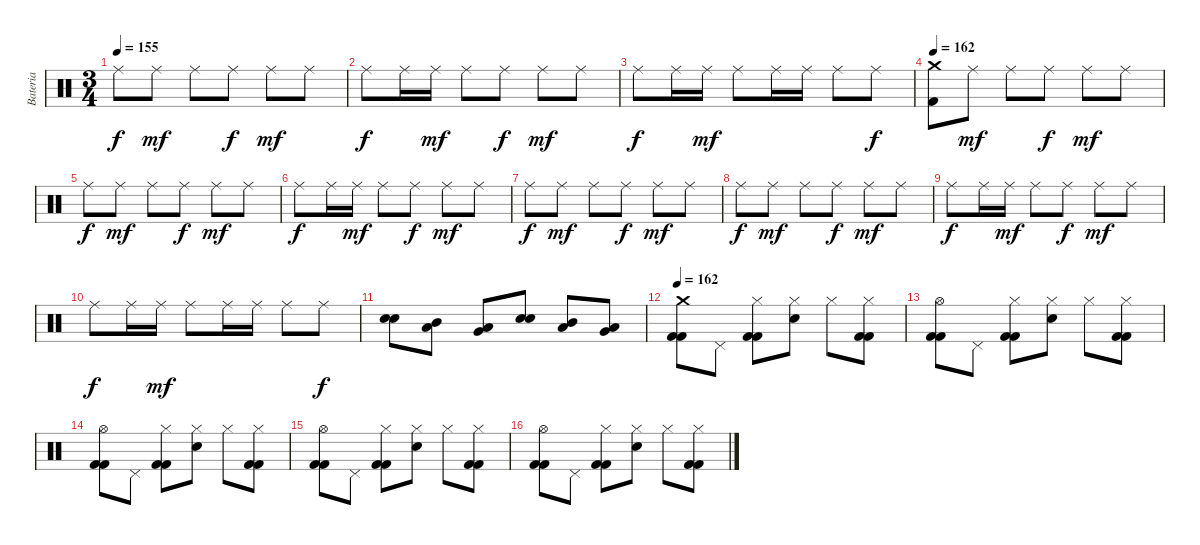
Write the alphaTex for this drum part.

\track ("Bateria" "Bateria") {instrument percussion}
\staff {score}
\articulation defaults
\ts (3 4)
\tempo 155
\clef neutral
\ks c "Ride (middle)".8{dy f} "Ride (middle)".8{dy mf} "Ride (middle)".8 "Ride (middle)".8{dy f} "Ride (middle)".8{dy mf} "Ride (middle)".8
|
"Ride (middle)".8{dy f} "Ride (middle)".16 "Ride (middle)".16{dy mf} "Ride (middle)".8 "Ride (middle)".8{dy f} "Ride (middle)".8{dy mf} "Ride (middle)".8 |
"Ride (middle)".8{dy f} "Ride (middle)".16 "Ride (middle)".16{dy mf} "Ride (middle)".8 "Ride (middle)".16 "Ride (middle)".16 "Ride (middle)".8 "Ride (middle)".8{dy f} |
\tempo 155
\tempo 162
("Crash medium (hit)" "Kick (hit) 2").8 "Ride (middle)".8{dy mf} "Ride (middle)".8 "Ride (middle)".8{dy f} "Ride (middle)".8{dy mf} "Ride (middle)".8 |
"Ride (middle)".8{dy f} "Ride (middle)".8{dy mf} "Ride (middle)".8 "Ride (middle)".8{dy f} "Ride (middle)".8{dy mf} "Ride (middle)".8 |
"Ride (middle)".8{dy f} "Ride (middle)".16 "Ride (middle)".16{dy mf} "Ride (middle)".8 "Ride (middle)".8{dy f} "Ride (middle)".8{dy mf} "Ride (middle)".8 |
"Ride (middle)".8{dy f} "Ride (middle)".8{dy mf} "Ride (middle)".8 "Ride (middle)".8{dy f} "Ride (middle)".8{dy mf} "Ride (middle)".8 |
"Ride (middle)".8{dy f} "Ride (middle)".8{dy mf} "Ride (middle)".8 "Ride (middle)".8{dy f} "Ride (middle)".8{dy mf} "Ride (middle)".8 |
"Ride (middle)".8{dy f} "Ride (middle)".16 "Ride (middle)".16{dy mf} "Ride (middle)".8 "Ride (middle)".8{dy f} "Ride (middle)".8{dy mf} "Ride (middle)".8 |
"Ride (middle)".8{dy f} "Ride (middle)".16 "Ride (middle)".16{dy mf} "Ride (middle)".8 "Ride (middle)".16 "Ride (middle)".16 "Ride (middle)".8 "Ride (middle)".8{dy f} |
("Electric Snare (hit)" "Electric Snare (hit)").8 ("Low Tom (hit)" "Mid Tom (hit)").8 ("Very Low Tom (hit)" "Low Tom (hit)").8 ("Electric Snare (hit)" "Electric Snare (hit)").8 ("Low Tom (hit)" "Mid Tom (hit)").8 ("Very Low Tom (hit)" "Low Tom (hit)").8 |
\tempo 162
("Kick (hit) 2" "Crash medium (hit)" "Kick (hit) 2").8 "Pedal Hi-Hat (hit)".8 ("Kick (hit) 2" "Hi-Hat (closed)" "Kick (hit) 2").8 ("Hi-Hat (closed)" "Electric Snare (hit)").8 "Hi-Hat (closed)".8 ("Kick (hit) 2" "Hi-Hat (closed)" "Kick (hit) 2").8 |
("Kick (hit) 2" "Hi-Hat (open)" "Kick (hit) 2").8 "Pedal Hi-Hat (hit)".8 ("Kick (hit) 2" "Hi-Hat (closed)" "Kick (hit) 2").8 ("Hi-Hat (closed)" "Electric Snare (hit)").8 "Hi-Hat (closed)".8 ("Kick (hit) 2" "Hi-Hat (closed)" "Kick (hit) 2").8 |
("Kick (hit) 2" "Hi-Hat (open)" "Kick (hit) 2").8 "Pedal Hi-Hat (hit)".8 ("Kick (hit) 2" "Hi-Hat (closed)" "Kick (hit) 2").8 ("Hi-Hat (closed)" "Electric Snare (hit)").8 "Hi-Hat (closed)".8 ("Kick (hit) 2" "Hi-Hat (closed)" "Kick (hit) 2").8 |
("Kick (hit) 2" "Hi-Hat (open)" "Kick (hit) 2").8 "Pedal Hi-Hat (hit)".8 ("Kick (hit) 2" "Hi-Hat (closed)" "Kick (hit) 2").8 ("Hi-Hat (closed)" "Electric Snare (hit)").8 "Hi-Hat (closed)".8 ("Kick (hit) 2" "Hi-Hat (closed)" "Kick (hit) 2").8 |
("Kick (hit) 2" "Hi-Hat (open)" "Kick (hit) 2").8 "Pedal Hi-Hat (hit)".8 ("Kick (hit) 2" "Hi-Hat (closed)" "Kick (hit) 2").8 ("Hi-Hat (closed)" "Electric Snare (hit)").8 "Hi-Hat (closed)".8 ("Kick (hit) 2" "Hi-Hat (closed)" "Kick (hit) 2").8
